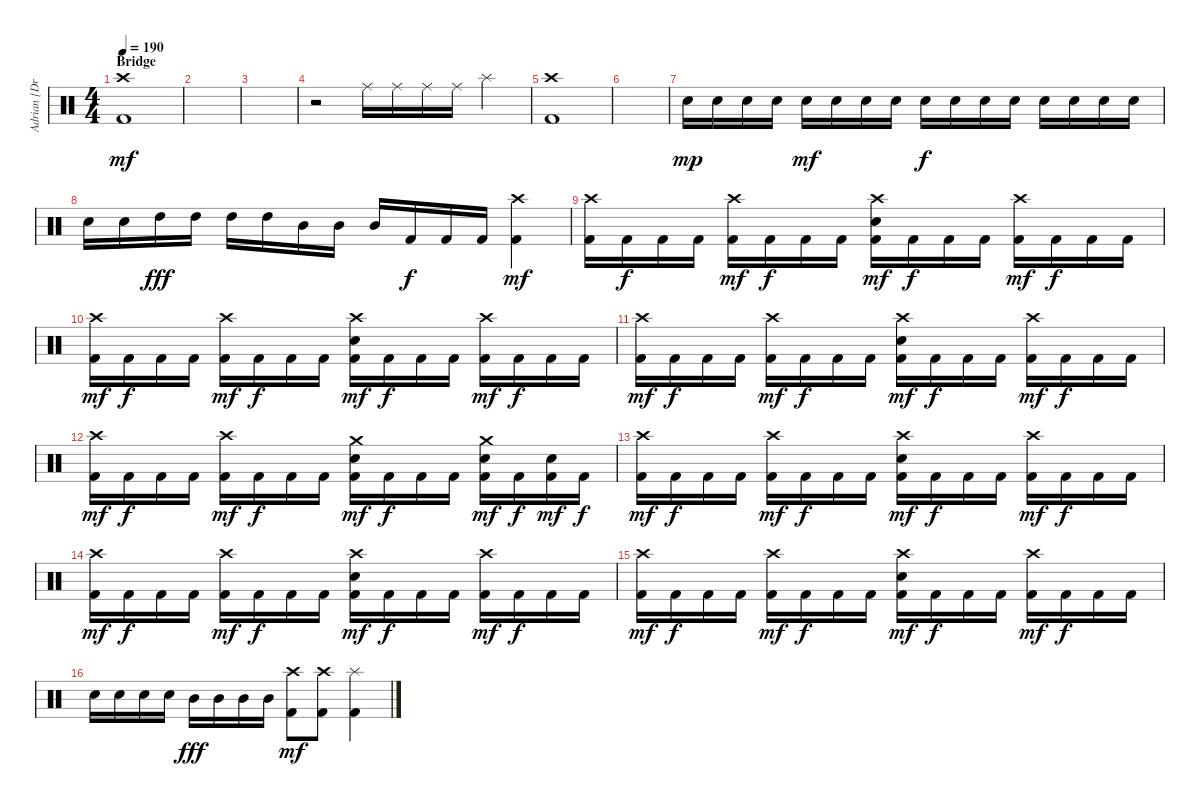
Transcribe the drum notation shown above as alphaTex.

\track ("Adrian [Drums]" "Adrian [Dr") {instrument percussion}
\staff {score}
\articulation defaults
\ts (4 4)
\section ("" "Bridge")
\tempo 190
\clef neutral
\ks c
("Crash high (hit)" "Kick (hit) 2").1{dy mf} |
|
|
r.2 "Ride (middle)".16 "Ride (middle)".16 "Ride (middle)".16 "Ride (middle)".16 "Splash (hit)".4 |
("Crash high (hit)" "Kick (hit) 2").1 |
|
"Electric Snare (hit)".16{dy mp} "Electric Snare (hit)".16 "Electric Snare (hit)".16 "Electric Snare (hit)".16 "Electric Snare (hit)".16{dy mf} "Electric Snare (hit)".16 "Electric Snare (hit)".16 "Electric Snare (hit)".16 "Electric Snare (hit)".16{dy f} "Electric Snare (hit)".16 "Electric Snare (hit)".16 "Electric Snare (hit)".16 "Electric Snare (hit)".16 "Electric Snare (hit)".16 "Electric Snare (hit)".16 "Electric Snare (hit)".16 |
"Electric Snare (hit)".16 "Electric Snare (hit)".16 "High Tom (hit)".16{dy fff} "High Tom (hit)".16 "High Tom (hit)".16 "High Tom (hit)".16 "Mid Tom (hit)".16 "Mid Tom (hit)".16 "Mid Tom (hit)".16 "Kick (hit) 2".16{dy f} "Kick (hit) 2".16 "Kick (hit) 2".16 ("Crash high (hit)" "Kick (hit) 2").4{dy mf} |
("Crash high (hit)" "Kick (hit) 2").16 "Kick (hit) 2".16{dy f} "Kick (hit) 2".16 "Kick (hit) 2".16 ("Crash high (hit)" "Kick (hit) 2").16{dy mf} "Kick (hit) 2".16{dy f} "Kick (hit) 2".16 "Kick (hit) 2".16 ("Crash high (hit)" "Electric Snare (hit)" "Kick (hit) 2").16{dy mf} "Kick (hit) 2".16{dy f} "Kick (hit) 2".16 "Kick (hit) 2".16 ("Crash high (hit)" "Kick (hit) 2").16{dy mf} "Kick (hit) 2".16{dy f} "Kick (hit) 2".16 "Kick (hit) 2".16 |
("Crash high (hit)" "Kick (hit) 2").16{dy mf} "Kick (hit) 2".16{dy f} "Kick (hit) 2".16 "Kick (hit) 2".16 ("Crash high (hit)" "Kick (hit) 2").16{dy mf} "Kick (hit) 2".16{dy f} "Kick (hit) 2".16 "Kick (hit) 2".16 ("Crash high (hit)" "Electric Snare (hit)" "Kick (hit) 2").16{dy mf} "Kick (hit) 2".16{dy f} "Kick (hit) 2".16 "Kick (hit) 2".16 ("Crash high (hit)" "Kick (hit) 2").16{dy mf} "Kick (hit) 2".16{dy f} "Kick (hit) 2".16 "Kick (hit) 2".16 |
("Crash high (hit)" "Kick (hit) 2").16{dy mf} "Kick (hit) 2".16{dy f} "Kick (hit) 2".16 "Kick (hit) 2".16 ("Crash high (hit)" "Kick (hit) 2").16{dy mf} "Kick (hit) 2".16{dy f} "Kick (hit) 2".16 "Kick (hit) 2".16 ("Crash high (hit)" "Electric Snare (hit)" "Kick (hit) 2").16{dy mf} "Kick (hit) 2".16{dy f} "Kick (hit) 2".16 "Kick (hit) 2".16 ("Crash high (hit)" "Kick (hit) 2").16{dy mf} "Kick (hit) 2".16{dy f} "Kick (hit) 2".16 "Kick (hit) 2".16 |
("Crash high (hit)" "Kick (hit) 2").16{dy mf} "Kick (hit) 2".16{dy f} "Kick (hit) 2".16 "Kick (hit) 2".16 ("Crash high (hit)" "Kick (hit) 2").16{dy mf} "Kick (hit) 2".16{dy f} "Kick (hit) 2".16 "Kick (hit) 2".16 ("Crash medium (hit)" "Electric Snare (hit)" "Kick (hit) 2").16{dy mf} "Kick (hit) 2".16{dy f} "Kick (hit) 2".16 "Kick (hit) 2".16 ("Crash medium (hit)" "Electric Snare (hit)" "Kick (hit) 2").16{dy mf} "Kick (hit) 2".16{dy f} ("Electric Snare (hit)" "Kick (hit) 2").16{dy mf} "Kick (hit) 2".16{dy f} |
("Crash high (hit)" "Kick (hit) 2").16{dy mf} "Kick (hit) 2".16{dy f} "Kick (hit) 2".16 "Kick (hit) 2".16 ("Crash high (hit)" "Kick (hit) 2").16{dy mf} "Kick (hit) 2".16{dy f} "Kick (hit) 2".16 "Kick (hit) 2".16 ("Crash high (hit)" "Electric Snare (hit)" "Kick (hit) 2").16{dy mf} "Kick (hit) 2".16{dy f} "Kick (hit) 2".16 "Kick (hit) 2".16 ("Crash high (hit)" "Kick (hit) 2").16{dy mf} "Kick (hit) 2".16{dy f} "Kick (hit) 2".16 "Kick (hit) 2".16 |
("Crash high (hit)" "Kick (hit) 2").16{dy mf} "Kick (hit) 2".16{dy f} "Kick (hit) 2".16 "Kick (hit) 2".16 ("Crash high (hit)" "Kick (hit) 2").16{dy mf} "Kick (hit) 2".16{dy f} "Kick (hit) 2".16 "Kick (hit) 2".16 ("Crash high (hit)" "Electric Snare (hit)" "Kick (hit) 2").16{dy mf} "Kick (hit) 2".16{dy f} "Kick (hit) 2".16 "Kick (hit) 2".16 ("Crash high (hit)" "Kick (hit) 2").16{dy mf} "Kick (hit) 2".16{dy f} "Kick (hit) 2".16 "Kick (hit) 2".16 |
("Crash high (hit)" "Kick (hit) 2").16{dy mf} "Kick (hit) 2".16{dy f} "Kick (hit) 2".16 "Kick (hit) 2".16 ("Crash high (hit)" "Kick (hit) 2").16{dy mf} "Kick (hit) 2".16{dy f} "Kick (hit) 2".16 "Kick (hit) 2".16 ("Crash high (hit)" "Electric Snare (hit)" "Kick (hit) 2").16{dy mf} "Kick (hit) 2".16{dy f} "Kick (hit) 2".16 "Kick (hit) 2".16 ("Crash high (hit)" "Kick (hit) 2").16{dy mf} "Kick (hit) 2".16{dy f} "Kick (hit) 2".16 "Kick (hit) 2".16 |
"Electric Snare (hit)".16 "Electric Snare (hit)".16 "Electric Snare (hit)".16 "Electric Snare (hit)".16 "Mid Tom (hit)".16{dy fff} "Mid Tom (hit)".16 "Mid Tom (hit)".16 "Mid Tom (hit)".16 ("Crash high (hit)" "Kick (hit) 2").8{dy mf} ("Crash high (hit)" "Kick (hit) 2").8 ("Splash (hit)" "Kick (hit) 2").4
